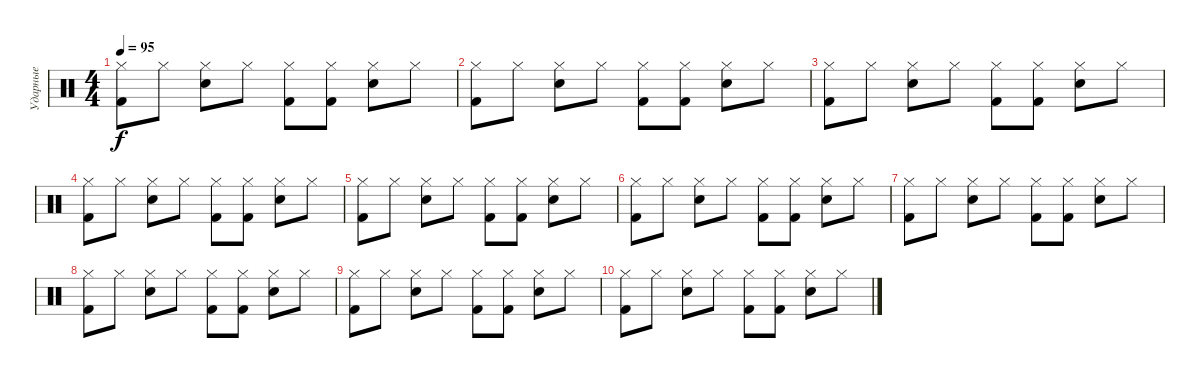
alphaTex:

\track ("Ударные" "Ударные") {instrument percussion}
\staff {score}
\articulation defaults
\ts (4 4)
\tempo 95
\clef neutral
\ks c
("Kick (hit) 2" "Hi-Hat (closed)").8{dy f} "Hi-Hat (closed)".8 ("Snare (hit) 2" "Hi-Hat (closed)").8 "Hi-Hat (closed)".8 ("Kick (hit) 2" "Hi-Hat (closed)").8 ("Kick (hit) 2" "Hi-Hat (closed)").8 ("Snare (hit) 2" "Hi-Hat (closed)").8 "Hi-Hat (closed)".8 |
("Kick (hit) 2" "Hi-Hat (closed)").8 "Hi-Hat (closed)".8 ("Snare (hit) 2" "Hi-Hat (closed)").8 "Hi-Hat (closed)".8 ("Kick (hit) 2" "Hi-Hat (closed)").8 ("Kick (hit) 2" "Hi-Hat (closed)").8 ("Snare (hit) 2" "Hi-Hat (closed)").8 "Hi-Hat (closed)".8 |
("Kick (hit) 2" "Hi-Hat (closed)").8 "Hi-Hat (closed)".8 ("Snare (hit) 2" "Hi-Hat (closed)").8 "Hi-Hat (closed)".8 ("Kick (hit) 2" "Hi-Hat (closed)").8 ("Kick (hit) 2" "Hi-Hat (closed)").8 ("Snare (hit) 2" "Hi-Hat (closed)").8 "Hi-Hat (closed)".8 |
("Kick (hit) 2" "Hi-Hat (closed)").8 "Hi-Hat (closed)".8 ("Snare (hit) 2" "Hi-Hat (closed)").8 "Hi-Hat (closed)".8 ("Kick (hit) 2" "Hi-Hat (closed)").8 ("Kick (hit) 2" "Hi-Hat (closed)").8 ("Snare (hit) 2" "Hi-Hat (closed)").8 "Hi-Hat (closed)".8 |
("Kick (hit) 2" "Hi-Hat (closed)").8 "Hi-Hat (closed)".8 ("Snare (hit) 2" "Hi-Hat (closed)").8 "Hi-Hat (closed)".8 ("Kick (hit) 2" "Hi-Hat (closed)").8 ("Kick (hit) 2" "Hi-Hat (closed)").8 ("Snare (hit) 2" "Hi-Hat (closed)").8 "Hi-Hat (closed)".8 |
("Kick (hit) 2" "Hi-Hat (closed)").8 "Hi-Hat (closed)".8 ("Snare (hit) 2" "Hi-Hat (closed)").8 "Hi-Hat (closed)".8 ("Kick (hit) 2" "Hi-Hat (closed)").8 ("Kick (hit) 2" "Hi-Hat (closed)").8 ("Snare (hit) 2" "Hi-Hat (closed)").8 "Hi-Hat (closed)".8 |
("Kick (hit) 2" "Hi-Hat (closed)").8 "Hi-Hat (closed)".8 ("Snare (hit) 2" "Hi-Hat (closed)").8 "Hi-Hat (closed)".8 ("Kick (hit) 2" "Hi-Hat (closed)").8 ("Kick (hit) 2" "Hi-Hat (closed)").8 ("Snare (hit) 2" "Hi-Hat (closed)").8 "Hi-Hat (closed)".8 |
("Kick (hit) 2" "Hi-Hat (closed)").8 "Hi-Hat (closed)".8 ("Snare (hit) 2" "Hi-Hat (closed)").8 "Hi-Hat (closed)".8 ("Kick (hit) 2" "Hi-Hat (closed)").8 ("Kick (hit) 2" "Hi-Hat (closed)").8 ("Snare (hit) 2" "Hi-Hat (closed)").8 "Hi-Hat (closed)".8 |
("Kick (hit) 2" "Hi-Hat (closed)").8 "Hi-Hat (closed)".8 ("Snare (hit) 2" "Hi-Hat (closed)").8 "Hi-Hat (closed)".8 ("Kick (hit) 2" "Hi-Hat (closed)").8 ("Kick (hit) 2" "Hi-Hat (closed)").8 ("Snare (hit) 2" "Hi-Hat (closed)").8 "Hi-Hat (closed)".8 |
("Kick (hit) 2" "Hi-Hat (closed)").8 "Hi-Hat (closed)".8 ("Snare (hit) 2" "Hi-Hat (closed)").8 "Hi-Hat (closed)".8 ("Kick (hit) 2" "Hi-Hat (closed)").8 ("Kick (hit) 2" "Hi-Hat (closed)").8 ("Snare (hit) 2" "Hi-Hat (closed)").8 "Hi-Hat (closed)".8
